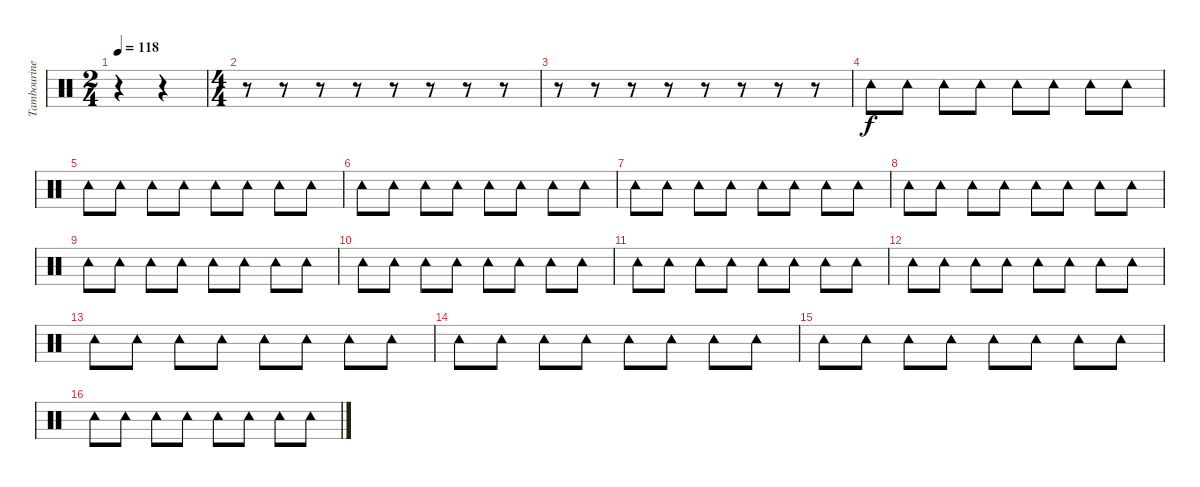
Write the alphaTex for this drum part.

\track ("Tambourine" "Tambourine") {instrument percussion}
\staff {score}
\articulation defaults
\ts (2 4)
\tempo 118
\clef neutral
\ks c
r.4{dy f} r.4 |
\ts (4 4)
r.8 r.8 r.8 r.8 r.8 r.8 r.8 r.8 |
r.8 r.8 r.8 r.8 r.8 r.8 r.8 r.8 |
"Tambourine (hit)".8 "Tambourine (hit)".8 "Tambourine (hit)".8 "Tambourine (hit)".8 "Tambourine (hit)".8 "Tambourine (hit)".8 "Tambourine (hit)".8 "Tambourine (hit)".8 |
"Tambourine (hit)".8 "Tambourine (hit)".8 "Tambourine (hit)".8 "Tambourine (hit)".8 "Tambourine (hit)".8 "Tambourine (hit)".8 "Tambourine (hit)".8 "Tambourine (hit)".8 |
"Tambourine (hit)".8 "Tambourine (hit)".8 "Tambourine (hit)".8 "Tambourine (hit)".8 "Tambourine (hit)".8 "Tambourine (hit)".8 "Tambourine (hit)".8 "Tambourine (hit)".8 |
"Tambourine (hit)".8 "Tambourine (hit)".8 "Tambourine (hit)".8 "Tambourine (hit)".8 "Tambourine (hit)".8 "Tambourine (hit)".8 "Tambourine (hit)".8 "Tambourine (hit)".8 |
"Tambourine (hit)".8 "Tambourine (hit)".8 "Tambourine (hit)".8 "Tambourine (hit)".8 "Tambourine (hit)".8 "Tambourine (hit)".8 "Tambourine (hit)".8 "Tambourine (hit)".8 |
"Tambourine (hit)".8 "Tambourine (hit)".8 "Tambourine (hit)".8 "Tambourine (hit)".8 "Tambourine (hit)".8 "Tambourine (hit)".8 "Tambourine (hit)".8 "Tambourine (hit)".8 |
"Tambourine (hit)".8 "Tambourine (hit)".8 "Tambourine (hit)".8 "Tambourine (hit)".8 "Tambourine (hit)".8 "Tambourine (hit)".8 "Tambourine (hit)".8 "Tambourine (hit)".8 |
"Tambourine (hit)".8 "Tambourine (hit)".8 "Tambourine (hit)".8 "Tambourine (hit)".8 "Tambourine (hit)".8 "Tambourine (hit)".8 "Tambourine (hit)".8 "Tambourine (hit)".8 |
"Tambourine (hit)".8 "Tambourine (hit)".8 "Tambourine (hit)".8 "Tambourine (hit)".8 "Tambourine (hit)".8 "Tambourine (hit)".8 "Tambourine (hit)".8 "Tambourine (hit)".8 |
"Tambourine (hit)".8 "Tambourine (hit)".8 "Tambourine (hit)".8 "Tambourine (hit)".8 "Tambourine (hit)".8 "Tambourine (hit)".8 "Tambourine (hit)".8 "Tambourine (hit)".8 |
"Tambourine (hit)".8 "Tambourine (hit)".8 "Tambourine (hit)".8 "Tambourine (hit)".8 "Tambourine (hit)".8 "Tambourine (hit)".8 "Tambourine (hit)".8 "Tambourine (hit)".8 |
"Tambourine (hit)".8 "Tambourine (hit)".8 "Tambourine (hit)".8 "Tambourine (hit)".8 "Tambourine (hit)".8 "Tambourine (hit)".8 "Tambourine (hit)".8 "Tambourine (hit)".8 |
"Tambourine (hit)".8 "Tambourine (hit)".8 "Tambourine (hit)".8 "Tambourine (hit)".8 "Tambourine (hit)".8 "Tambourine (hit)".8 "Tambourine (hit)".8 "Tambourine (hit)".8
